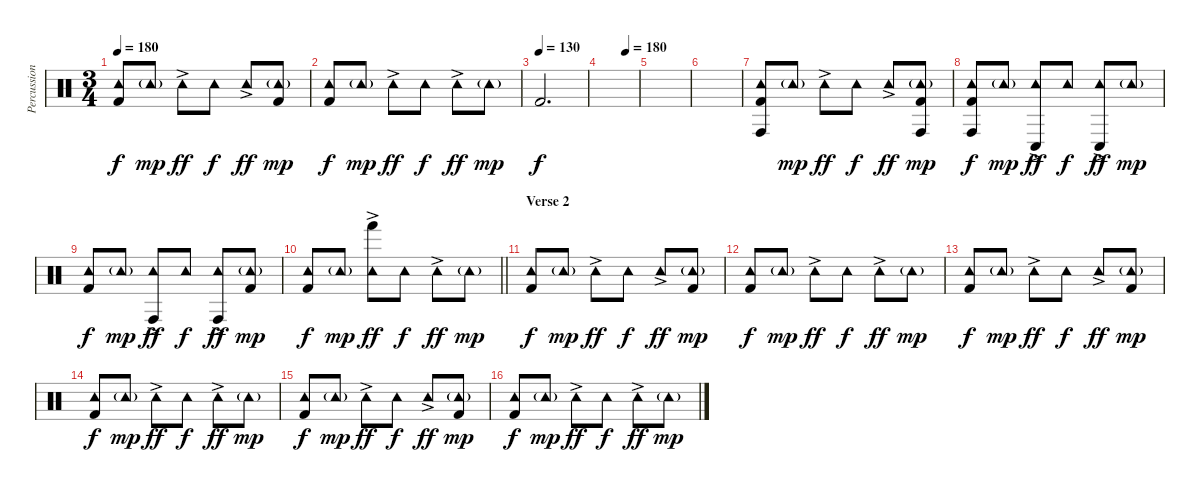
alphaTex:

\track ("Percussion" "Percussion") {instrument percussion}
\staff {score}
\articulation defaults
\ts (3 4)
\tempo 180
\clef neutral
\ks c
("Tambourine (hit)" "Kick (hit) 2").8{dy f} "Tambourine (hit)"{g}.8{dy mp} "Tambourine (hit)"{ac}.8{dy ff volume 10} "Tambourine (hit)".8{dy f volume 6} "Tambourine (hit)"{ac}.8{dy ff volume 10} ("Tambourine (hit)"{g} "Kick (hit) 2").8{dy mp} |
("Tambourine (hit)" "Kick (hit) 2").8{dy f} "Tambourine (hit)"{g}.8{dy mp} "Tambourine (hit)"{ac}.8{dy ff volume 10} "Tambourine (hit)".8{dy f volume 6} "Tambourine (hit)"{ac}.8{dy ff volume 10} "Tambourine (hit)"{g}.8{dy mp} |
\tempo (130)
"Kick (hit) 2".2{d dy f} |
\tempo (180 0.6666666666666666)
|
|
|
("Tambourine (hit)" "Conga high (hit)" "Kick (hit) 2").8{volume 8} "Tambourine (hit)"{g}.8{dy mp} "Tambourine (hit)"{ac}.8{dy ff volume 10} "Tambourine (hit)".8{dy f volume 6} "Tambourine (hit)"{ac}.8{dy ff volume 10} ("Tambourine (hit)"{g} "Conga high (hit)" "Kick (hit) 2").8{dy mp} |
("Tambourine (hit)" "Conga high (hit)" "Kick (hit) 2").8{dy f} "Tambourine (hit)"{g}.8{dy mp} ("Tambourine (hit)"{ac} "Conga low (hit)").8{dy ff volume 10} "Tambourine (hit)".8{dy f volume 6} ("Tambourine (hit)"{ac} "Conga low (hit)").8{dy ff volume 10} "Tambourine (hit)"{g}.8{dy mp} |
("Tambourine (hit)" "Kick (hit) 2").8{dy f} "Tambourine (hit)"{g}.8{dy mp} ("Tambourine (hit)"{ac} "Conga high (hit)").8{dy ff volume 10} "Tambourine (hit)".8{dy f volume 6} ("Tambourine (hit)"{ac} "Conga high (hit)").8{dy ff volume 10} ("Tambourine (hit)"{g} "Kick (hit) 2").8{dy mp} |
\barLineRight lightlight
("Tambourine (hit)" "Kick (hit) 2").8{dy f} "Tambourine (hit)"{g}.8{dy mp} ("Tambourine (hit)"{ac} "Hand (hit)").8{dy ff volume 10} "Tambourine (hit)".8{dy f volume 6} "Tambourine (hit)"{ac}.8{dy ff volume 10} "Tambourine (hit)"{g}.8{dy mp} |
\section ("" "Verse 2")
("Tambourine (hit)" "Kick (hit) 2").8{dy f} "Tambourine (hit)"{g}.8{dy mp} "Tambourine (hit)"{ac}.8{dy ff volume 10} "Tambourine (hit)".8{dy f volume 6} "Tambourine (hit)"{ac}.8{dy ff volume 10} ("Tambourine (hit)"{g} "Kick (hit) 2").8{dy mp} |
("Tambourine (hit)" "Kick (hit) 2").8{dy f} "Tambourine (hit)"{g}.8{dy mp} "Tambourine (hit)"{ac}.8{dy ff volume 10} "Tambourine (hit)".8{dy f volume 6} "Tambourine (hit)"{ac}.8{dy ff volume 10} "Tambourine (hit)"{g}.8{dy mp} |
("Tambourine (hit)" "Kick (hit) 2").8{dy f} "Tambourine (hit)"{g}.8{dy mp} "Tambourine (hit)"{ac}.8{dy ff volume 10} "Tambourine (hit)".8{dy f volume 6} "Tambourine (hit)"{ac}.8{dy ff volume 10} ("Tambourine (hit)"{g} "Kick (hit) 2").8{dy mp} |
("Tambourine (hit)" "Kick (hit) 2").8{dy f} "Tambourine (hit)"{g}.8{dy mp} "Tambourine (hit)"{ac}.8{dy ff volume 10} "Tambourine (hit)".8{dy f volume 6} "Tambourine (hit)"{ac}.8{dy ff volume 10} "Tambourine (hit)"{g}.8{dy mp} |
("Tambourine (hit)" "Kick (hit) 2").8{dy f} "Tambourine (hit)"{g}.8{dy mp} "Tambourine (hit)"{ac}.8{dy ff volume 10} "Tambourine (hit)".8{dy f volume 6} "Tambourine (hit)"{ac}.8{dy ff volume 10} ("Tambourine (hit)"{g} "Kick (hit) 2").8{dy mp} |
("Tambourine (hit)" "Kick (hit) 2").8{dy f} "Tambourine (hit)"{g}.8{dy mp} "Tambourine (hit)"{ac}.8{dy ff volume 10} "Tambourine (hit)".8{dy f volume 6} "Tambourine (hit)"{ac}.8{dy ff volume 10} "Tambourine (hit)"{g}.8{dy mp}
